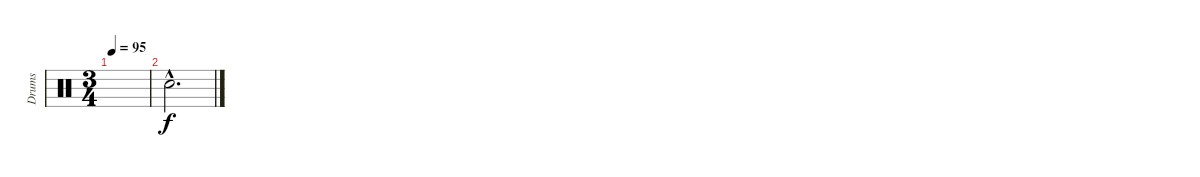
\track ("Drums" "Drums") {instrument percussion}
\staff {score}
\articulation defaults
\ts (3 4)
\tempo 95
\clef neutral
\ks c
|
"Snare (hit)"{hac t}.2{d}
